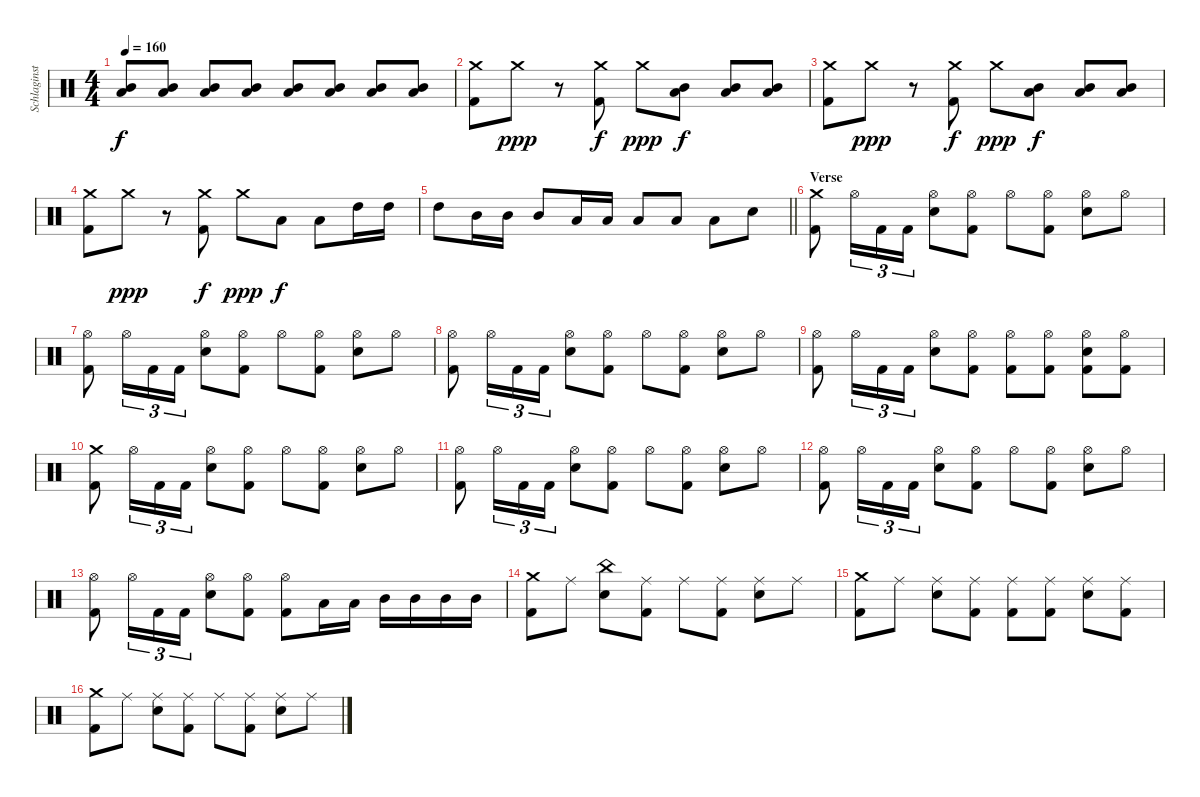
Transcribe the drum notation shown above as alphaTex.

\track ("Schlaginstrumente - Auswahl" "Schlaginst") {instrument percussion}
\staff {score}
\articulation defaults
\ts (4 4)
\tempo 160
\clef neutral
\ks c
("Mid Tom (hit)" "Low Tom (hit)").8{dy f} ("Mid Tom (hit)" "Low Tom (hit)").8 ("Mid Tom (hit)" "Low Tom (hit)").8 ("Mid Tom (hit)" "Low Tom (hit)").8 ("Mid Tom (hit)" "Low Tom (hit)").8 ("Mid Tom (hit)" "Low Tom (hit)").8 ("Mid Tom (hit)" "Low Tom (hit)").8 ("Mid Tom (hit)" "Low Tom (hit)").8 |
("Crash medium (hit)" "Kick (hit) 2").8 "Crash medium (hit)".8{dy ppp} r.8 ("Crash medium (hit)" "Kick (hit) 2").8{dy f} "Crash medium (hit)".8{dy ppp} ("Mid Tom (hit)" "Low Tom (hit)").8{dy f} ("Mid Tom (hit)" "Low Tom (hit)").8 ("Mid Tom (hit)" "Low Tom (hit)").8 |
("Crash medium (hit)" "Kick (hit) 2").8 "Crash medium (hit)".8{dy ppp} r.8 ("Crash medium (hit)" "Kick (hit) 2").8{dy f} "Crash medium (hit)".8{dy ppp} ("Mid Tom (hit)" "Low Tom (hit)").8{dy f} ("Mid Tom (hit)" "Low Tom (hit)").8 ("Mid Tom (hit)" "Low Tom (hit)").8 |
("Crash medium (hit)" "Kick (hit) 2").8 "Crash medium (hit)".8{dy ppp} r.8 ("Crash medium (hit)" "Kick (hit) 2").8{dy f} "Crash medium (hit)".8{dy ppp} "Low Tom (hit)".8{dy f} "Low Tom (hit)".8 "High Tom (hit)".16 "High Tom (hit)".16 |
\barLineRight lightlight "High Tom (hit)".8 "Mid Tom (hit)".16 "Mid Tom (hit)".16 "Mid Tom (hit)".8 "Low Tom (hit)".16 "Low Tom (hit)".16 "Low Tom (hit)".8 "Low Tom (hit)".8 "Low Tom (hit)".8 "Electric Snare (hit)".8
|
\section ("" "Verse")
("Crash medium (hit)" "Kick (hit) 2").8 "Hi-Hat (open)".16{tu (3 2)} "Kick (hit) 2".16{tu (3 2)} "Kick (hit) 2".16{tu (3 2)} ("Hi-Hat (open)" "Electric Snare (hit)").8 ("Hi-Hat (open)" "Kick (hit) 2").8 "Hi-Hat (open)".8 ("Hi-Hat (open)" "Kick (hit) 2").8 ("Hi-Hat (open)" "Electric Snare (hit)").8 "Hi-Hat (open)".8 |
("Hi-Hat (open)" "Kick (hit) 2").8 "Hi-Hat (open)".16{tu (3 2)} "Kick (hit) 2".16{tu (3 2)} "Kick (hit) 2".16{tu (3 2)} ("Hi-Hat (open)" "Electric Snare (hit)").8 ("Hi-Hat (open)" "Kick (hit) 2").8 "Hi-Hat (open)".8 ("Hi-Hat (open)" "Kick (hit) 2").8 ("Hi-Hat (open)" "Electric Snare (hit)").8 "Hi-Hat (open)".8 |
("Hi-Hat (open)" "Kick (hit) 2").8 "Hi-Hat (open)".16{tu (3 2)} "Kick (hit) 2".16{tu (3 2)} "Kick (hit) 2".16{tu (3 2)} ("Hi-Hat (open)" "Electric Snare (hit)").8 ("Hi-Hat (open)" "Kick (hit) 2").8 "Hi-Hat (open)".8 ("Hi-Hat (open)" "Kick (hit) 2").8 ("Hi-Hat (open)" "Electric Snare (hit)").8 "Hi-Hat (open)".8 |
("Hi-Hat (open)" "Kick (hit) 2").8 "Hi-Hat (open)".16{tu (3 2)} "Kick (hit) 2".16{tu (3 2)} "Kick (hit) 2".16{tu (3 2)} ("Hi-Hat (open)" "Electric Snare (hit)").8 ("Hi-Hat (open)" "Kick (hit) 2").8 ("Hi-Hat (open)" "Kick (hit) 2").8 ("Hi-Hat (open)" "Kick (hit) 2").8 ("Hi-Hat (open)" "Electric Snare (hit)" "Kick (hit) 2").8 ("Hi-Hat (open)" "Kick (hit) 2").8 |
("Crash medium (hit)" "Kick (hit) 2").8 "Hi-Hat (open)".16{tu (3 2)} "Kick (hit) 2".16{tu (3 2)} "Kick (hit) 2".16{tu (3 2)} ("Hi-Hat (open)" "Electric Snare (hit)").8 ("Hi-Hat (open)" "Kick (hit) 2").8 "Hi-Hat (open)".8 ("Hi-Hat (open)" "Kick (hit) 2").8 ("Hi-Hat (open)" "Electric Snare (hit)").8 "Hi-Hat (open)".8 |
("Hi-Hat (open)" "Kick (hit) 2").8 "Hi-Hat (open)".16{tu (3 2)} "Kick (hit) 2".16{tu (3 2)} "Kick (hit) 2".16{tu (3 2)} ("Hi-Hat (open)" "Electric Snare (hit)").8 ("Hi-Hat (open)" "Kick (hit) 2").8 "Hi-Hat (open)".8 ("Hi-Hat (open)" "Kick (hit) 2").8 ("Hi-Hat (open)" "Electric Snare (hit)").8 "Hi-Hat (open)".8 |
("Hi-Hat (open)" "Kick (hit) 2").8 "Hi-Hat (open)".16{tu (3 2)} "Kick (hit) 2".16{tu (3 2)} "Kick (hit) 2".16{tu (3 2)} ("Hi-Hat (open)" "Electric Snare (hit)").8 ("Hi-Hat (open)" "Kick (hit) 2").8 "Hi-Hat (open)".8 ("Hi-Hat (open)" "Kick (hit) 2").8 ("Hi-Hat (open)" "Electric Snare (hit)").8 "Hi-Hat (open)".8 |
("Hi-Hat (open)" "Kick (hit) 2").8 "Hi-Hat (open)".16{tu (3 2)} "Kick (hit) 2".16{tu (3 2)} "Kick (hit) 2".16{tu (3 2)} ("Hi-Hat (open)" "Electric Snare (hit)").8 ("Hi-Hat (open)" "Kick (hit) 2").8 ("Hi-Hat (open)" "Kick (hit) 2").8 "Low Tom (hit)".16 "Low Tom (hit)".16 "Mid Tom (hit)".16 "Mid Tom (hit)".16 "Mid Tom (hit)".16 "Mid Tom (hit)".16 |
("Crash medium (hit)" "Kick (hit) 2").8 "Ride (middle)".8 ("China (hit)" "Electric Snare (hit)").8 ("Ride (middle)" "Kick (hit) 2").8 "Ride (middle)".8 ("Ride (middle)" "Kick (hit) 2").8 ("Ride (middle)" "Electric Snare (hit)").8 "Ride (middle)".8 |
("Crash medium (hit)" "Kick (hit) 2").8 "Ride (middle)".8 ("Ride (middle)" "Electric Snare (hit)").8 ("Ride (middle)" "Kick (hit) 2").8 ("Ride (middle)" "Kick (hit) 2").8 ("Ride (middle)" "Kick (hit) 2").8 ("Ride (middle)" "Electric Snare (hit)").8 ("Ride (middle)" "Kick (hit) 2").8 |
("Crash medium (hit)" "Kick (hit) 2").8 "Ride (middle)".8 ("Ride (middle)" "Electric Snare (hit)").8 ("Ride (middle)" "Kick (hit) 2").8 "Ride (middle)".8 ("Ride (middle)" "Kick (hit) 2").8 ("Ride (middle)" "Electric Snare (hit)").8 "Ride (middle)".8
